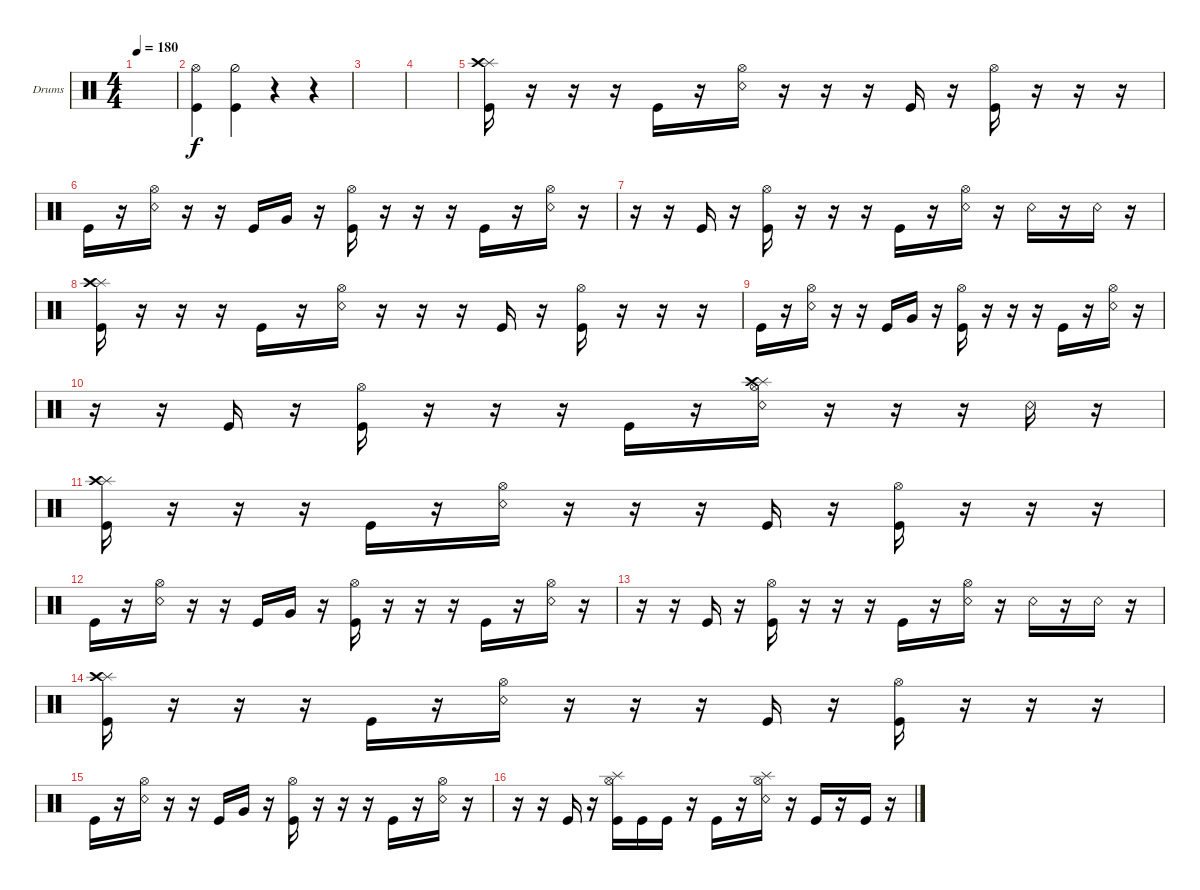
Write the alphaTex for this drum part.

\defaultSystemsLayout 4
\bracketExtendMode groupsimilarinstruments
\firstSystemTrackNameOrientation horizontal
\otherSystemsTrackNameOrientation horizontal
\track ("Drumkit" "Drums") {instrument percussion}
\staff {score}
\articulation defaults
\ts (4 4)
\tempo 180
\clef neutral
\ks c
|
("Kick (hit)" "Hi-Hat (open)").4 ("Kick (hit)" "Hi-Hat (half)").4 r.4 r.4 |
|
|
("Splash (hit)" "Crash high (hit)" "Kick (hit)").16 r.16 r.16 r.16 "Kick (hit)".16 r.16 ("Hi-Hat (open)" "Snare (rim shot)").16 r.16 r.16 r.16 "Kick (hit)".16 r.16 ("Hi-Hat (open)" "Kick (hit)").16 r.16 r.16 r.16 |
"Kick (hit)".16 r.16 ("Hi-Hat (open)" "Snare (rim shot)").16 r.16 r.16 "Kick (hit)".16 "Very Low Tom (hit)".16 r.16 ("Hi-Hat (open)" "Kick (hit)").16 r.16 r.16 r.16 "Kick (hit)".16 r.16 ("Hi-Hat (open)" "Snare (rim shot)").16 r.16 |
r.16 r.16 "Kick (hit)".16 r.16 ("Hi-Hat (open)" "Kick (hit)").16 r.16 r.16 r.16 "Kick (hit)".16 r.16 ("Hi-Hat (open)" "Snare (rim shot)").16 r.16 "Snare (rim shot)".16 r.16 "Snare (rim shot)".16 r.16 |
("Splash (hit)" "Crash high (hit)" "Kick (hit)").16 r.16 r.16 r.16 "Kick (hit)".16 r.16 ("Hi-Hat (open)" "Snare (rim shot)").16 r.16 r.16 r.16 "Kick (hit)".16 r.16 ("Hi-Hat (open)" "Kick (hit)").16 r.16 r.16 r.16 |
"Kick (hit)".16 r.16 ("Hi-Hat (open)" "Snare (rim shot)").16 r.16 r.16 "Kick (hit)".16 "Very Low Tom (hit)".16 r.16 ("Hi-Hat (open)" "Kick (hit)").16 r.16 r.16 r.16 "Kick (hit)".16 r.16 ("Hi-Hat (open)" "Snare (rim shot)").16 r.16 |
r.16 r.16 "Kick (hit)".16 r.16 ("Hi-Hat (open)" "Kick (hit)").16 r.16 r.16 r.16 "Kick (hit)".16 r.16 ("Hi-Hat (open)" "Snare (rim shot)" "Splash (hit)" "Crash high (hit)").16 r.16 r.16 r.16 "Snare (rim shot)".16 r.16 |
("Splash (hit)" "Crash high (hit)" "Kick (hit)").16 r.16 r.16 r.16 "Kick (hit)".16 r.16 ("Hi-Hat (open)" "Snare (rim shot)").16 r.16 r.16 r.16 "Kick (hit)".16 r.16 ("Hi-Hat (open)" "Kick (hit)").16 r.16 r.16 r.16 |
"Kick (hit)".16 r.16 ("Hi-Hat (open)" "Snare (rim shot)").16 r.16 r.16 "Kick (hit)".16 "Very Low Tom (hit)".16 r.16 ("Hi-Hat (open)" "Kick (hit)").16 r.16 r.16 r.16 "Kick (hit)".16 r.16 ("Hi-Hat (open)" "Snare (rim shot)").16 r.16 |
r.16 r.16 "Kick (hit)".16 r.16 ("Hi-Hat (open)" "Kick (hit)").16 r.16 r.16 r.16 "Kick (hit)".16 r.16 ("Hi-Hat (open)" "Snare (rim shot)").16 r.16 "Snare (rim shot)".16 r.16 "Snare (rim shot)".16 r.16 |
("Splash (hit)" "Crash high (hit)" "Kick (hit)").16 r.16 r.16 r.16 "Kick (hit)".16 r.16 ("Hi-Hat (open)" "Snare (rim shot)").16 r.16 r.16 r.16 "Kick (hit)".16 r.16 ("Hi-Hat (open)" "Kick (hit)").16 r.16 r.16 r.16 |
"Kick (hit)".16 r.16 ("Hi-Hat (open)" "Snare (rim shot)").16 r.16 r.16 "Kick (hit)".16 "Very Low Tom (hit)".16 r.16 ("Hi-Hat (open)" "Kick (hit)").16 r.16 r.16 r.16 "Kick (hit)".16 r.16 ("Hi-Hat (open)" "Snare (rim shot)").16 r.16 |
r.16 r.16 "Kick (hit)".16 r.16 ("Hi-Hat (open)" "Kick (hit)" "Splash (hit)").16 "Kick (hit)".16 "Kick (hit)".16 r.16 "Kick (hit)".16 r.16 ("Hi-Hat (open)" "Snare (rim shot)" "Splash (hit)").16 r.16 "Kick (hit)".16 r.16 "Kick (hit)".16 r.16
